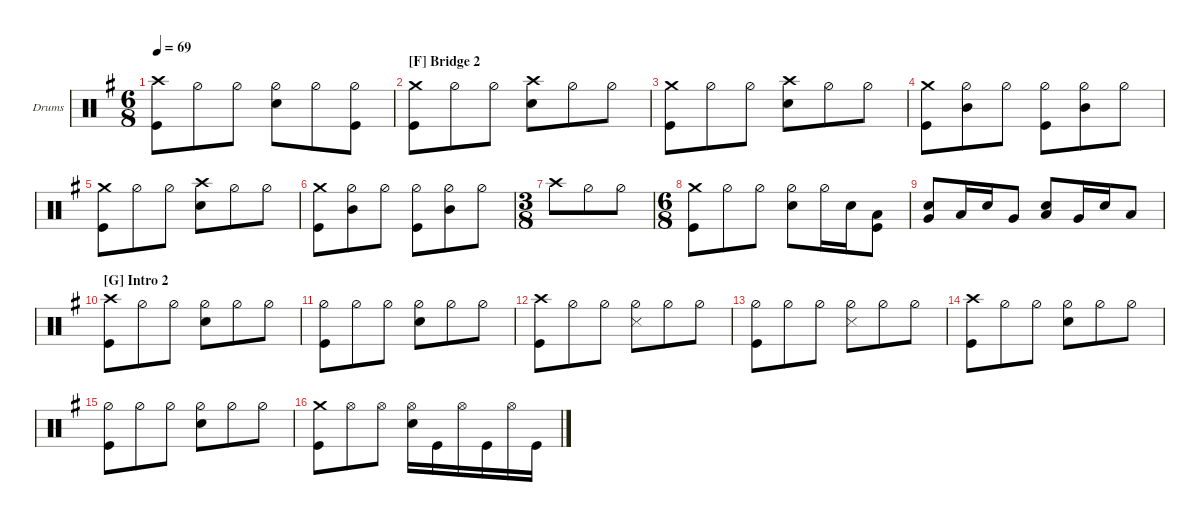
\hideDynamics
\bracketExtendMode groupsimilarinstruments
\firstSystemTrackNameOrientation horizontal
\otherSystemsTrackNameOrientation horizontal
\track ("Drumkit" "Drums") {multiBarRest instrument percussion}
\staff {score}
\articulation defaults
\ts (6 8)
\tempo 69
\clef neutral
\ks g
("Crash high (hit)" "Kick (hit)").8{dy f} "Hi-Hat (half)".8 "Hi-Hat (half)".8 ("Hi-Hat (half)" "Snare (hit) 2").8 "Hi-Hat (half)".8 ("Hi-Hat (half)" "Kick (hit)").8 |
\section ("F" "Bridge 2")
("Crash medium (hit)" "Kick (hit)").8 "Hi-Hat (half)".8 "Hi-Hat (half)".8 ("Crash high (hit)" "Snare (hit) 2").8 "Hi-Hat (half)".8 "Hi-Hat (half)".8 |
("Crash medium (hit)" "Kick (hit)").8 "Hi-Hat (half)".8 "Hi-Hat (half)".8 ("Crash high (hit)" "Snare (hit) 2").8 "Hi-Hat (half)".8 "Hi-Hat (half)".8 |
("Crash medium (hit)" "Kick (hit)").8 ("Hi-Hat (half)" "Mid Tom (hit)").8 "Hi-Hat (half)".8 ("Hi-Hat (half)" "Kick (hit)").8 ("Hi-Hat (half)" "Mid Tom (hit)").8 "Hi-Hat (half)".8 |
("Crash medium (hit)" "Kick (hit)").8 "Hi-Hat (half)".8 "Hi-Hat (half)".8 ("Crash high (hit)" "Snare (hit) 2").8 "Hi-Hat (half)".8 "Hi-Hat (half)".8 |
("Crash medium (hit)" "Kick (hit)").8 ("Hi-Hat (half)" "Mid Tom (hit)").8 "Hi-Hat (half)".8 ("Hi-Hat (half)" "Kick (hit)").8 ("Hi-Hat (half)" "Mid Tom (hit)").8 "Hi-Hat (half)".8 |
\ts (3 8)
"Crash high (hit)".8 "Hi-Hat (half)".8 "Hi-Hat (half)".8 |
\ts (6 8)
("Crash medium (hit)" "Kick (hit)").8 "Hi-Hat (half)".8 "Hi-Hat (half)".8 ("Hi-Hat (half)" "Snare (hit) 2").8 "Hi-Hat (half)".16 "Snare (hit) 2".16 ("Low Tom (hit)" "Kick (hit)").8 |
("Snare (hit) 2" "Very Low Tom (hit)").8 "Low Tom (hit)".16 "Snare (hit) 2".16 "Very Low Tom (hit)".8 ("Snare (hit) 2" "Low Tom (hit)").8 "Very Low Tom (hit)".16 "Snare (hit) 2".16 "Low Tom (hit)".8 |
\section ("G" "Intro 2")
("Crash high (hit)" "Kick (hit)").8 "Hi-Hat (half)".8 "Hi-Hat (half)".8 ("Snare (hit) 2" "Hi-Hat (half)").8 "Hi-Hat (half)".8 "Hi-Hat (half)".8 |
("Hi-Hat (half)" "Kick (hit)").8 "Hi-Hat (half)".8 "Hi-Hat (half)".8 ("Hi-Hat (half)" "Snare (hit) 2").8 "Hi-Hat (half)".8 "Hi-Hat (half)".8 |
("Crash high (hit)" "Kick (hit)").8 "Hi-Hat (half)".8 "Hi-Hat (half)".8 ("Hi-Hat (half)" "Snare (side stick) 3").8 "Hi-Hat (half)".8 "Hi-Hat (half)".8 |
("Hi-Hat (half)" "Kick (hit)").8 "Hi-Hat (half)".8 "Hi-Hat (half)".8 ("Hi-Hat (half)" "Snare (side stick) 3").8 "Hi-Hat (half)".8 "Hi-Hat (half)".8 |
("Crash high (hit)" "Kick (hit)").8 "Hi-Hat (half)".8 "Hi-Hat (half)".8 ("Hi-Hat (half)" "Snare (hit) 2").8 "Hi-Hat (half)".8 "Hi-Hat (half)".8 |
("Hi-Hat (half)" "Kick (hit)").8 "Hi-Hat (half)".8 "Hi-Hat (half)".8 ("Snare (hit) 2" "Hi-Hat (half)").8 "Hi-Hat (half)".8 "Hi-Hat (half)".8 |
("Crash medium (hit)" "Kick (hit)").8 "Hi-Hat (open)".8 "Hi-Hat (open)".8 ("Hi-Hat (open)" "Snare (hit) 2").16 "Kick (hit)".16 "Hi-Hat (open)".16 "Kick (hit)".16 "Hi-Hat (open)".16 "Kick (hit)".16
